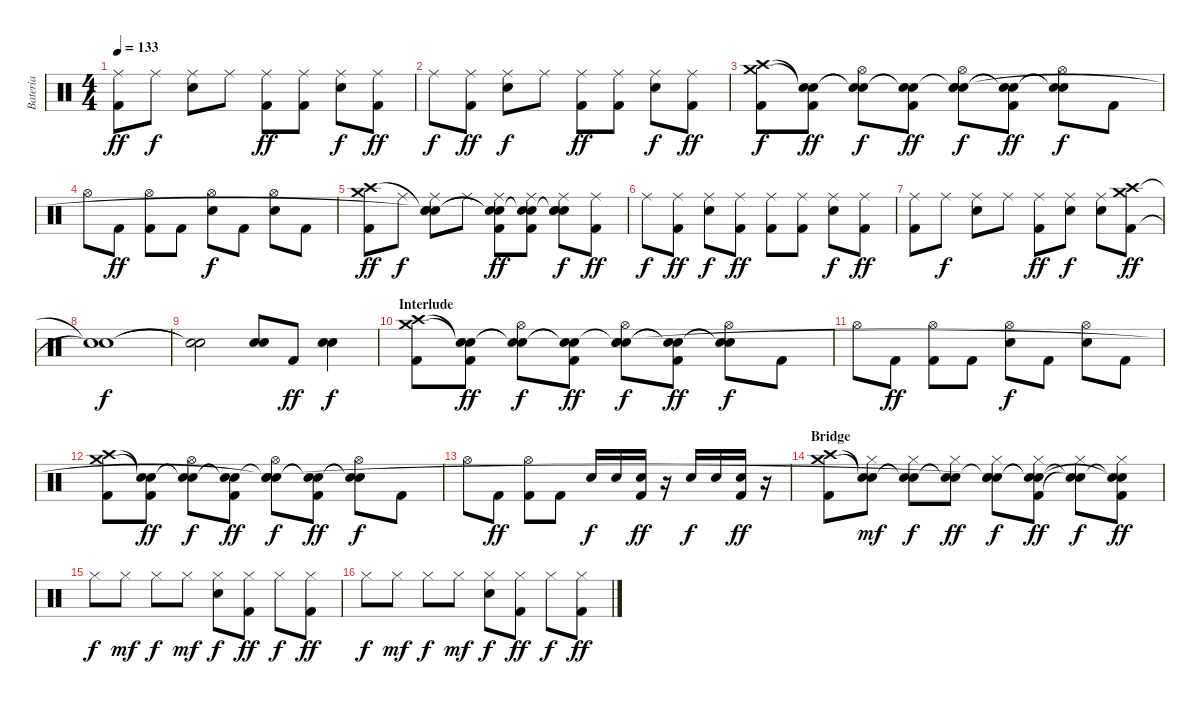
\track ("Bateria" "Bateria") {instrument percussion}
\staff {score}
\articulation defaults
\ts (4 4)
\tempo 133
\clef neutral
\ks c
("Ride (middle)" "Kick (hit) 2").8{dy ff} "Ride (middle)".8{dy f} ("Ride (middle)" "Snare (hit) 2").8 "Ride (middle)".8 ("Ride (middle)" "Kick (hit) 2").8{dy ff} ("Ride (middle)" "Kick (hit) 2").8 ("Ride (middle)" "Snare (hit) 2").8{dy f} ("Ride (middle)" "Kick (hit) 2").8{dy ff} |
"Ride (middle)".8{dy f} ("Ride (middle)" "Kick (hit) 2").8{dy ff} ("Ride (middle)" "Snare (hit) 2").8{dy f} "Ride (middle)".8 ("Ride (middle)" "Kick (hit) 2").8{dy ff} ("Ride (middle)" "Kick (hit) 2").8 ("Ride (middle)" "Snare (hit) 2").8{dy f} ("Ride (middle)" "Kick (hit) 2").8{dy ff} |
("Kick (hit) 2" "Crash high (hit)" "Crash medium (hit)").8{dy f} ("Kick (hit) 2" "Snare (hit)"{t} "Snare (hit)"{t}).8{dy ff} ("Hi-Hat (open)" "Snare (hit)"{t} "Snare (hit)"{t}).8{dy f} ("Kick (hit) 2" "Snare (hit)"{t} "Snare (hit)"{t}).8{dy ff} ("Hi-Hat (open)" "Snare (hit) 2" "Snare (hit)"{t} "Snare (hit)").8{dy f} ("Kick (hit) 2" "Snare (hit)"{t} "Snare (hit)"{t}).8{dy ff} ("Hi-Hat (open)" "Snare (hit)"{t} "Snare (hit)"{t}).8{dy f} "Kick (hit) 2".8 |
"Hi-Hat (open)".8 "Kick (hit) 2".8{dy ff} ("Hi-Hat (open)" "Kick (hit) 2").8 "Kick (hit) 2".8 ("Hi-Hat (open)" "Snare (hit) 2").8{dy f} "Kick (hit) 2".8 ("Hi-Hat (open)" "Snare (hit) 2").8 "Kick (hit) 2".8 |
("Kick (hit) 2" "Crash medium (hit)" "Crash high (hit)").8{dy ff} "Ride (middle)".8{dy f} ("Ride (middle)" "Snare (hit) 2" "Snare (hit)"{t} "Snare (hit)"{t}).8 "Ride (middle)".8 ("Ride (middle)" "Kick (hit) 2" "Snare (hit)"{t} "Snare (hit)"{t}).8{dy ff} ("Ride (middle)" "Kick (hit) 2" "Snare (hit)"{t} "Snare (hit)"{t}).8 ("Ride (middle)" "Snare (hit) 2" "Snare (hit)"{t} "Snare (hit)"{t}).8{dy f} ("Ride (middle)" "Kick (hit) 2").8{dy ff} |
"Ride (middle)".8{dy f} ("Ride (middle)" "Kick (hit) 2").8{dy ff} ("Ride (middle)" "Snare (hit) 2").8{dy f} ("Ride (middle)" "Kick (hit) 2").8{dy ff} ("Ride (middle)" "Kick (hit) 2").8 ("Ride (middle)" "Kick (hit) 2").8 ("Ride (middle)" "Snare (hit) 2").8{dy f} ("Ride (middle)" "Kick (hit) 2").8{dy ff} |
("Ride (middle)" "Kick (hit) 2").8 "Ride (middle)".8{dy f} ("Ride (middle)" "Snare (hit) 2").8 "Ride (middle)".8 ("Ride (middle)" "Kick (hit) 2").8{dy ff} ("Ride (middle)" "Snare (hit) 2").8{dy f} ("Ride (middle)" "Snare (hit) 2").8 ("Kick (hit) 2" "Crash medium (hit)" "Crash high (hit)").8{dy ff} |
("Snare (hit)"{t} "Snare (hit)"{t}).1{dy f} |
("Snare (hit)"{t} "Snare (hit)"{t}).2 ("Snare (hit) 2" "Snare (hit) 2").8 "Kick (hit) 2".8{dy ff} ("Snare (hit) 2" "Snare (hit) 2").4{dy f} |
\section ("" "Interlude")
("Kick (hit) 2" "Crash high (hit)" "Crash medium (hit)").8 ("Kick (hit) 2" "Snare (hit)"{t} "Snare (hit)"{t}).8{dy ff} ("Hi-Hat (open)" "Snare (hit)"{t} "Snare (hit)"{t}).8{dy f} ("Kick (hit) 2" "Snare (hit)"{t} "Snare (hit)"{t}).8{dy ff} ("Hi-Hat (open)" "Snare (hit) 2" "Snare (hit)"{t} "Snare (hit)").8{dy f} ("Kick (hit) 2" "Snare (hit)"{t} "Snare (hit)"{t}).8{dy ff} ("Hi-Hat (open)" "Snare (hit)"{t} "Snare (hit)"{t}).8{dy f} "Kick (hit) 2".8 |
"Hi-Hat (open)".8 "Kick (hit) 2".8{dy ff} ("Hi-Hat (open)" "Kick (hit) 2").8 "Kick (hit) 2".8 ("Hi-Hat (open)" "Snare (hit) 2").8{dy f} "Kick (hit) 2".8 ("Hi-Hat (open)" "Snare (hit) 2").8 "Kick (hit) 2".8 |
("Kick (hit) 2" "Crash high (hit)" "Crash medium (hit)").8 ("Kick (hit) 2" "Snare (hit)"{t} "Snare (hit)"{t}).8{dy ff} ("Hi-Hat (open)" "Snare (hit)"{t} "Snare (hit)"{t}).8{dy f} ("Kick (hit) 2" "Snare (hit)"{t} "Snare (hit)"{t}).8{dy ff} ("Hi-Hat (open)" "Snare (hit) 2" "Snare (hit)"{t} "Snare (hit)"{t}).8{dy f} ("Kick (hit) 2" "Snare (hit)"{t} "Snare (hit)"{t}).8{dy ff} ("Hi-Hat (open)" "Snare (hit)"{t} "Snare (hit)"{t}).8{dy f} "Kick (hit) 2".8 |
"Hi-Hat (open)".8 "Kick (hit) 2".8{dy ff} ("Hi-Hat (open)" "Kick (hit) 2").8 "Kick (hit) 2".8 "Snare (hit) 2".16{dy f} "Snare (hit) 2".16 ("Snare (hit) 2" "Kick (hit) 2").16{dy ff} r.16 "Snare (hit) 2".16{dy f} "Snare (hit) 2".16 ("Snare (hit) 2" "Kick (hit) 2").16{dy ff} r.16 |
\section ("" "Bridge")
("Kick (hit) 2" "Crash medium (hit)" "Crash high (hit)").8 ("Hi-Hat (closed)" "Snare (hit)"{t} "Snare (hit)"{t}).8{dy mf} ("Hi-Hat (closed)" "Snare (hit)"{t} "Snare (hit)"{t}).8{dy f} ("Hi-Hat (closed)" "Snare (hit)"{t} "Snare (hit)"{t}).8{dy ff} ("Hi-Hat (closed)" "Snare (hit) 2" "Snare (hit)"{t} "Snare (hit)"{t}).8{dy f} ("Hi-Hat (closed)" "Kick (hit) 2" "Snare (hit)"{t} "Snare (hit)"{t}).8{dy ff} ("Hi-Hat (closed)" "Snare (hit)"{t} "Snare (hit)"{t}).8{dy f} ("Hi-Hat (closed)" "Kick (hit) 2" "Snare (hit)"{t} "Snare (hit)"{t}).8{dy ff} |
"Hi-Hat (closed)".8{dy f} "Hi-Hat (closed)".8{dy mf} "Hi-Hat (closed)".8{dy f} "Hi-Hat (closed)".8{dy mf} ("Hi-Hat (closed)" "Snare (hit) 2").8{dy f} ("Hi-Hat (closed)" "Kick (hit) 2").8{dy ff} "Hi-Hat (closed)".8{dy f} ("Hi-Hat (closed)" "Kick (hit) 2").8{dy ff} |
"Hi-Hat (closed)".8{dy f} "Hi-Hat (closed)".8{dy mf} "Hi-Hat (closed)".8{dy f} "Hi-Hat (closed)".8{dy mf} ("Hi-Hat (closed)" "Snare (hit) 2").8{dy f} ("Hi-Hat (closed)" "Kick (hit) 2").8{dy ff} "Hi-Hat (closed)".8{dy f} ("Hi-Hat (closed)" "Kick (hit) 2").8{dy ff}
